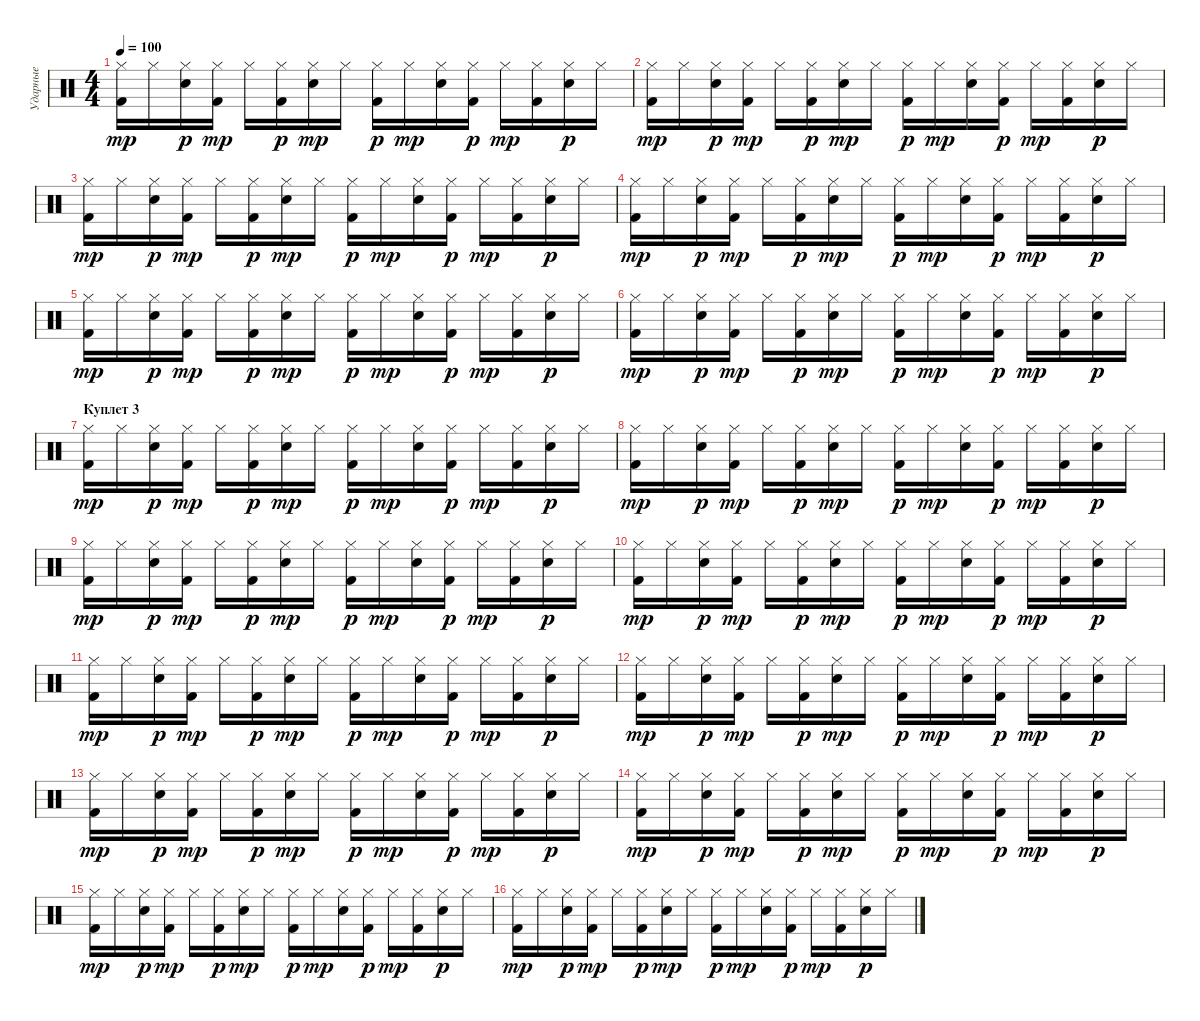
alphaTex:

\track ("Ударные" "Ударные") {instrument percussion}
\staff {score}
\articulation defaults
\ts (4 4)
\tempo 100
\clef neutral
\ks c
("Hi-Hat (closed)" "Kick (hit) 2").16{dy mp} "Hi-Hat (closed)".16 ("Hi-Hat (closed)" "Electric Snare (hit)").16{dy p} ("Hi-Hat (closed)" "Kick (hit) 2").16{dy mp} "Hi-Hat (closed)".16 ("Hi-Hat (closed)" "Kick (hit) 2").16{dy p} ("Hi-Hat (closed)" "Electric Snare (hit)").16{dy mp} "Hi-Hat (closed)".16 ("Hi-Hat (closed)" "Kick (hit) 2").16{dy p} "Hi-Hat (closed)".16{dy mp} ("Hi-Hat (closed)" "Electric Snare (hit)").16 ("Hi-Hat (closed)" "Kick (hit) 2").16{dy p} "Hi-Hat (closed)".16{dy mp} ("Hi-Hat (closed)" "Kick (hit) 2").16 ("Hi-Hat (closed)" "Electric Snare (hit)").16{dy p} "Hi-Hat (closed)".16 |
("Hi-Hat (closed)" "Kick (hit) 2").16{dy mp} "Hi-Hat (closed)".16 ("Hi-Hat (closed)" "Electric Snare (hit)").16{dy p} ("Hi-Hat (closed)" "Kick (hit) 2").16{dy mp} "Hi-Hat (closed)".16 ("Hi-Hat (closed)" "Kick (hit) 2").16{dy p} ("Hi-Hat (closed)" "Electric Snare (hit)").16{dy mp} "Hi-Hat (closed)".16 ("Hi-Hat (closed)" "Kick (hit) 2").16{dy p} "Hi-Hat (closed)".16{dy mp} ("Hi-Hat (closed)" "Electric Snare (hit)").16 ("Hi-Hat (closed)" "Kick (hit) 2").16{dy p} "Hi-Hat (closed)".16{dy mp} ("Hi-Hat (closed)" "Kick (hit) 2").16 ("Hi-Hat (closed)" "Electric Snare (hit)").16{dy p} "Hi-Hat (closed)".16 |
("Hi-Hat (closed)" "Kick (hit) 2").16{dy mp} "Hi-Hat (closed)".16 ("Hi-Hat (closed)" "Electric Snare (hit)").16{dy p} ("Hi-Hat (closed)" "Kick (hit) 2").16{dy mp} "Hi-Hat (closed)".16 ("Hi-Hat (closed)" "Kick (hit) 2").16{dy p} ("Hi-Hat (closed)" "Electric Snare (hit)").16{dy mp} "Hi-Hat (closed)".16 ("Hi-Hat (closed)" "Kick (hit) 2").16{dy p} "Hi-Hat (closed)".16{dy mp} ("Hi-Hat (closed)" "Electric Snare (hit)").16 ("Hi-Hat (closed)" "Kick (hit) 2").16{dy p} "Hi-Hat (closed)".16{dy mp} ("Hi-Hat (closed)" "Kick (hit) 2").16 ("Hi-Hat (closed)" "Electric Snare (hit)").16{dy p} "Hi-Hat (closed)".16 |
("Hi-Hat (closed)" "Kick (hit) 2").16{dy mp} "Hi-Hat (closed)".16 ("Hi-Hat (closed)" "Electric Snare (hit)").16{dy p} ("Hi-Hat (closed)" "Kick (hit) 2").16{dy mp} "Hi-Hat (closed)".16 ("Hi-Hat (closed)" "Kick (hit) 2").16{dy p} ("Hi-Hat (closed)" "Electric Snare (hit)").16{dy mp} "Hi-Hat (closed)".16 ("Hi-Hat (closed)" "Kick (hit) 2").16{dy p} "Hi-Hat (closed)".16{dy mp} ("Hi-Hat (closed)" "Electric Snare (hit)").16 ("Hi-Hat (closed)" "Kick (hit) 2").16{dy p} "Hi-Hat (closed)".16{dy mp} ("Hi-Hat (closed)" "Kick (hit) 2").16 ("Hi-Hat (closed)" "Electric Snare (hit)").16{dy p} "Hi-Hat (closed)".16 |
("Hi-Hat (closed)" "Kick (hit) 2").16{dy mp} "Hi-Hat (closed)".16 ("Hi-Hat (closed)" "Electric Snare (hit)").16{dy p} ("Hi-Hat (closed)" "Kick (hit) 2").16{dy mp} "Hi-Hat (closed)".16 ("Hi-Hat (closed)" "Kick (hit) 2").16{dy p} ("Hi-Hat (closed)" "Electric Snare (hit)").16{dy mp} "Hi-Hat (closed)".16 ("Hi-Hat (closed)" "Kick (hit) 2").16{dy p} "Hi-Hat (closed)".16{dy mp} ("Hi-Hat (closed)" "Electric Snare (hit)").16 ("Hi-Hat (closed)" "Kick (hit) 2").16{dy p} "Hi-Hat (closed)".16{dy mp} ("Hi-Hat (closed)" "Kick (hit) 2").16 ("Hi-Hat (closed)" "Electric Snare (hit)").16{dy p} "Hi-Hat (closed)".16 |
("Hi-Hat (closed)" "Kick (hit) 2").16{dy mp} "Hi-Hat (closed)".16 ("Hi-Hat (closed)" "Electric Snare (hit)").16{dy p} ("Hi-Hat (closed)" "Kick (hit) 2").16{dy mp} "Hi-Hat (closed)".16 ("Hi-Hat (closed)" "Kick (hit) 2").16{dy p} ("Hi-Hat (closed)" "Electric Snare (hit)").16{dy mp} "Hi-Hat (closed)".16 ("Hi-Hat (closed)" "Kick (hit) 2").16{dy p} "Hi-Hat (closed)".16{dy mp} ("Hi-Hat (closed)" "Electric Snare (hit)").16 ("Hi-Hat (closed)" "Kick (hit) 2").16{dy p} "Hi-Hat (closed)".16{dy mp} ("Hi-Hat (closed)" "Kick (hit) 2").16 ("Hi-Hat (closed)" "Electric Snare (hit)").16{dy p} "Hi-Hat (closed)".16 |
\section ("" "Куплет 3")
("Hi-Hat (closed)" "Kick (hit) 2").16{dy mp} "Hi-Hat (closed)".16 ("Hi-Hat (closed)" "Electric Snare (hit)").16{dy p} ("Hi-Hat (closed)" "Kick (hit) 2").16{dy mp} "Hi-Hat (closed)".16 ("Hi-Hat (closed)" "Kick (hit) 2").16{dy p} ("Hi-Hat (closed)" "Electric Snare (hit)").16{dy mp} "Hi-Hat (closed)".16 ("Hi-Hat (closed)" "Kick (hit) 2").16{dy p} "Hi-Hat (closed)".16{dy mp} ("Hi-Hat (closed)" "Electric Snare (hit)").16 ("Hi-Hat (closed)" "Kick (hit) 2").16{dy p} "Hi-Hat (closed)".16{dy mp} ("Hi-Hat (closed)" "Kick (hit) 2").16 ("Hi-Hat (closed)" "Electric Snare (hit)").16{dy p} "Hi-Hat (closed)".16 |
("Hi-Hat (closed)" "Kick (hit) 2").16{dy mp} "Hi-Hat (closed)".16 ("Hi-Hat (closed)" "Electric Snare (hit)").16{dy p} ("Hi-Hat (closed)" "Kick (hit) 2").16{dy mp} "Hi-Hat (closed)".16 ("Hi-Hat (closed)" "Kick (hit) 2").16{dy p} ("Hi-Hat (closed)" "Electric Snare (hit)").16{dy mp} "Hi-Hat (closed)".16 ("Hi-Hat (closed)" "Kick (hit) 2").16{dy p} "Hi-Hat (closed)".16{dy mp} ("Hi-Hat (closed)" "Electric Snare (hit)").16 ("Hi-Hat (closed)" "Kick (hit) 2").16{dy p} "Hi-Hat (closed)".16{dy mp} ("Hi-Hat (closed)" "Kick (hit) 2").16 ("Hi-Hat (closed)" "Electric Snare (hit)").16{dy p} "Hi-Hat (closed)".16 |
("Hi-Hat (closed)" "Kick (hit) 2").16{dy mp} "Hi-Hat (closed)".16 ("Hi-Hat (closed)" "Electric Snare (hit)").16{dy p} ("Hi-Hat (closed)" "Kick (hit) 2").16{dy mp} "Hi-Hat (closed)".16 ("Hi-Hat (closed)" "Kick (hit) 2").16{dy p} ("Hi-Hat (closed)" "Electric Snare (hit)").16{dy mp} "Hi-Hat (closed)".16 ("Hi-Hat (closed)" "Kick (hit) 2").16{dy p} "Hi-Hat (closed)".16{dy mp} ("Hi-Hat (closed)" "Electric Snare (hit)").16 ("Hi-Hat (closed)" "Kick (hit) 2").16{dy p} "Hi-Hat (closed)".16{dy mp} ("Hi-Hat (closed)" "Kick (hit) 2").16 ("Hi-Hat (closed)" "Electric Snare (hit)").16{dy p} "Hi-Hat (closed)".16 |
("Hi-Hat (closed)" "Kick (hit) 2").16{dy mp} "Hi-Hat (closed)".16 ("Hi-Hat (closed)" "Electric Snare (hit)").16{dy p} ("Hi-Hat (closed)" "Kick (hit) 2").16{dy mp} "Hi-Hat (closed)".16 ("Hi-Hat (closed)" "Kick (hit) 2").16{dy p} ("Hi-Hat (closed)" "Electric Snare (hit)").16{dy mp} "Hi-Hat (closed)".16 ("Hi-Hat (closed)" "Kick (hit) 2").16{dy p} "Hi-Hat (closed)".16{dy mp} ("Hi-Hat (closed)" "Electric Snare (hit)").16 ("Hi-Hat (closed)" "Kick (hit) 2").16{dy p} "Hi-Hat (closed)".16{dy mp} ("Hi-Hat (closed)" "Kick (hit) 2").16 ("Hi-Hat (closed)" "Electric Snare (hit)").16{dy p} "Hi-Hat (closed)".16 |
("Hi-Hat (closed)" "Kick (hit) 2").16{dy mp} "Hi-Hat (closed)".16 ("Hi-Hat (closed)" "Electric Snare (hit)").16{dy p} ("Hi-Hat (closed)" "Kick (hit) 2").16{dy mp} "Hi-Hat (closed)".16 ("Hi-Hat (closed)" "Kick (hit) 2").16{dy p} ("Hi-Hat (closed)" "Electric Snare (hit)").16{dy mp} "Hi-Hat (closed)".16 ("Hi-Hat (closed)" "Kick (hit) 2").16{dy p} "Hi-Hat (closed)".16{dy mp} ("Hi-Hat (closed)" "Electric Snare (hit)").16 ("Hi-Hat (closed)" "Kick (hit) 2").16{dy p} "Hi-Hat (closed)".16{dy mp} ("Hi-Hat (closed)" "Kick (hit) 2").16 ("Hi-Hat (closed)" "Electric Snare (hit)").16{dy p} "Hi-Hat (closed)".16 |
("Hi-Hat (closed)" "Kick (hit) 2").16{dy mp} "Hi-Hat (closed)".16 ("Hi-Hat (closed)" "Electric Snare (hit)").16{dy p} ("Hi-Hat (closed)" "Kick (hit) 2").16{dy mp} "Hi-Hat (closed)".16 ("Hi-Hat (closed)" "Kick (hit) 2").16{dy p} ("Hi-Hat (closed)" "Electric Snare (hit)").16{dy mp} "Hi-Hat (closed)".16 ("Hi-Hat (closed)" "Kick (hit) 2").16{dy p} "Hi-Hat (closed)".16{dy mp} ("Hi-Hat (closed)" "Electric Snare (hit)").16 ("Hi-Hat (closed)" "Kick (hit) 2").16{dy p} "Hi-Hat (closed)".16{dy mp} ("Hi-Hat (closed)" "Kick (hit) 2").16 ("Hi-Hat (closed)" "Electric Snare (hit)").16{dy p} "Hi-Hat (closed)".16 |
("Hi-Hat (closed)" "Kick (hit) 2").16{dy mp} "Hi-Hat (closed)".16 ("Hi-Hat (closed)" "Electric Snare (hit)").16{dy p} ("Hi-Hat (closed)" "Kick (hit) 2").16{dy mp} "Hi-Hat (closed)".16 ("Hi-Hat (closed)" "Kick (hit) 2").16{dy p} ("Hi-Hat (closed)" "Electric Snare (hit)").16{dy mp} "Hi-Hat (closed)".16 ("Hi-Hat (closed)" "Kick (hit) 2").16{dy p} "Hi-Hat (closed)".16{dy mp} ("Hi-Hat (closed)" "Electric Snare (hit)").16 ("Hi-Hat (closed)" "Kick (hit) 2").16{dy p} "Hi-Hat (closed)".16{dy mp} ("Hi-Hat (closed)" "Kick (hit) 2").16 ("Hi-Hat (closed)" "Electric Snare (hit)").16{dy p} "Hi-Hat (closed)".16 |
("Hi-Hat (closed)" "Kick (hit) 2").16{dy mp} "Hi-Hat (closed)".16 ("Hi-Hat (closed)" "Electric Snare (hit)").16{dy p} ("Hi-Hat (closed)" "Kick (hit) 2").16{dy mp} "Hi-Hat (closed)".16 ("Hi-Hat (closed)" "Kick (hit) 2").16{dy p} ("Hi-Hat (closed)" "Electric Snare (hit)").16{dy mp} "Hi-Hat (closed)".16 ("Hi-Hat (closed)" "Kick (hit) 2").16{dy p} "Hi-Hat (closed)".16{dy mp} ("Hi-Hat (closed)" "Electric Snare (hit)").16 ("Hi-Hat (closed)" "Kick (hit) 2").16{dy p} "Hi-Hat (closed)".16{dy mp} ("Hi-Hat (closed)" "Kick (hit) 2").16 ("Hi-Hat (closed)" "Electric Snare (hit)").16{dy p} "Hi-Hat (closed)".16 |
("Hi-Hat (closed)" "Kick (hit) 2").16{dy mp} "Hi-Hat (closed)".16 ("Hi-Hat (closed)" "Electric Snare (hit)").16{dy p} ("Hi-Hat (closed)" "Kick (hit) 2").16{dy mp} "Hi-Hat (closed)".16 ("Hi-Hat (closed)" "Kick (hit) 2").16{dy p} ("Hi-Hat (closed)" "Electric Snare (hit)").16{dy mp} "Hi-Hat (closed)".16 ("Hi-Hat (closed)" "Kick (hit) 2").16{dy p} "Hi-Hat (closed)".16{dy mp} ("Hi-Hat (closed)" "Electric Snare (hit)").16 ("Hi-Hat (closed)" "Kick (hit) 2").16{dy p} "Hi-Hat (closed)".16{dy mp} ("Hi-Hat (closed)" "Kick (hit) 2").16 ("Hi-Hat (closed)" "Electric Snare (hit)").16{dy p} "Hi-Hat (closed)".16 |
("Hi-Hat (closed)" "Kick (hit) 2").16{dy mp} "Hi-Hat (closed)".16 ("Hi-Hat (closed)" "Electric Snare (hit)").16{dy p} ("Hi-Hat (closed)" "Kick (hit) 2").16{dy mp} "Hi-Hat (closed)".16 ("Hi-Hat (closed)" "Kick (hit) 2").16{dy p} ("Hi-Hat (closed)" "Electric Snare (hit)").16{dy mp} "Hi-Hat (closed)".16 ("Hi-Hat (closed)" "Kick (hit) 2").16{dy p} "Hi-Hat (closed)".16{dy mp} ("Hi-Hat (closed)" "Electric Snare (hit)").16 ("Hi-Hat (closed)" "Kick (hit) 2").16{dy p} "Hi-Hat (closed)".16{dy mp} ("Hi-Hat (closed)" "Kick (hit) 2").16 ("Hi-Hat (closed)" "Electric Snare (hit)").16{dy p} "Hi-Hat (closed)".16
